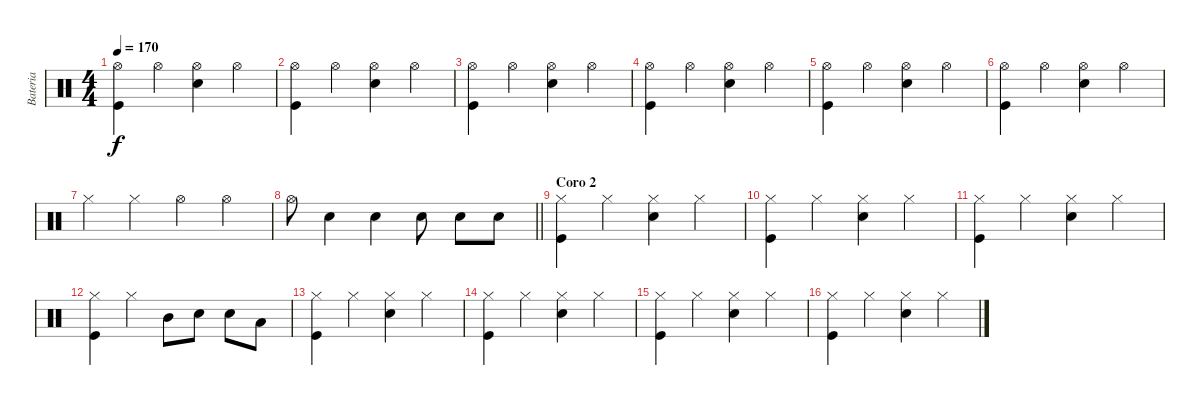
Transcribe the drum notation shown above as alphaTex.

\track ("Bateria" "Bateria") {instrument percussion}
\staff {score}
\articulation defaults
\ts (4 4)
\tempo 170
\clef neutral
\ks c
("Hi-Hat (open)" "Kick (hit)").4{dy f} "Hi-Hat (open)".4 ("Hi-Hat (open)" "Snare (hit) 2").4 "Hi-Hat (open)".4 |
("Hi-Hat (open)" "Kick (hit)").4 "Hi-Hat (open)".4 ("Hi-Hat (open)" "Snare (hit) 2").4 "Hi-Hat (open)".4 |
("Hi-Hat (open)" "Kick (hit)").4 "Hi-Hat (open)".4 ("Hi-Hat (open)" "Snare (hit) 2").4 "Hi-Hat (open)".4 |
("Hi-Hat (open)" "Kick (hit)").4 "Hi-Hat (open)".4 ("Hi-Hat (open)" "Snare (hit) 2").4 "Hi-Hat (open)".4 |
("Hi-Hat (open)" "Kick (hit)").4 "Hi-Hat (open)".4 ("Hi-Hat (open)" "Snare (hit) 2").4 "Hi-Hat (open)".4 |
("Hi-Hat (open)" "Kick (hit)").4 "Hi-Hat (open)".4 ("Hi-Hat (open)" "Snare (hit) 2").4 "Hi-Hat (open)".4 |
"Hi-Hat (closed)".4 "Hi-Hat (closed)".4 "Hi-Hat (open)".4 "Hi-Hat (open)".4 |
\barLineRight lightlight "Hi-Hat (open)".8 "Snare (hit) 2".4 "Snare (hit) 2".4 "Snare (hit) 2".8 "Snare (hit) 2".8 "Snare (hit) 2".8
|
\section ("" "Coro 2")
("Hi-Hat (closed)" "Kick (hit)").4 "Hi-Hat (closed)".4 ("Hi-Hat (closed)" "Snare (hit) 2").4 "Hi-Hat (closed)".4 |
("Hi-Hat (closed)" "Kick (hit)").4 "Hi-Hat (closed)".4 ("Hi-Hat (closed)" "Snare (hit) 2").4 "Hi-Hat (closed)".4 |
("Hi-Hat (closed)" "Kick (hit)").4 "Hi-Hat (closed)".4 ("Hi-Hat (closed)" "Snare (hit) 2").4 "Hi-Hat (closed)".4 |
("Hi-Hat (closed)" "Kick (hit)").4 "Hi-Hat (closed)".4 "Mid Tom (hit)".8 "Snare (hit) 2".8 "Snare (hit) 2".8 "Low Tom (hit)".8 |
("Hi-Hat (closed)" "Kick (hit)").4 "Hi-Hat (closed)".4 ("Hi-Hat (closed)" "Snare (hit) 2").4 "Hi-Hat (closed)".4 |
("Hi-Hat (closed)" "Kick (hit)").4 "Hi-Hat (closed)".4 ("Hi-Hat (closed)" "Snare (hit) 2").4 "Hi-Hat (closed)".4 |
("Hi-Hat (closed)" "Kick (hit)").4 "Hi-Hat (closed)".4 ("Hi-Hat (closed)" "Snare (hit) 2").4 "Hi-Hat (closed)".4 |
("Hi-Hat (closed)" "Kick (hit)").4 "Hi-Hat (closed)".4 ("Hi-Hat (closed)" "Snare (hit) 2").4 "Hi-Hat (closed)".4
